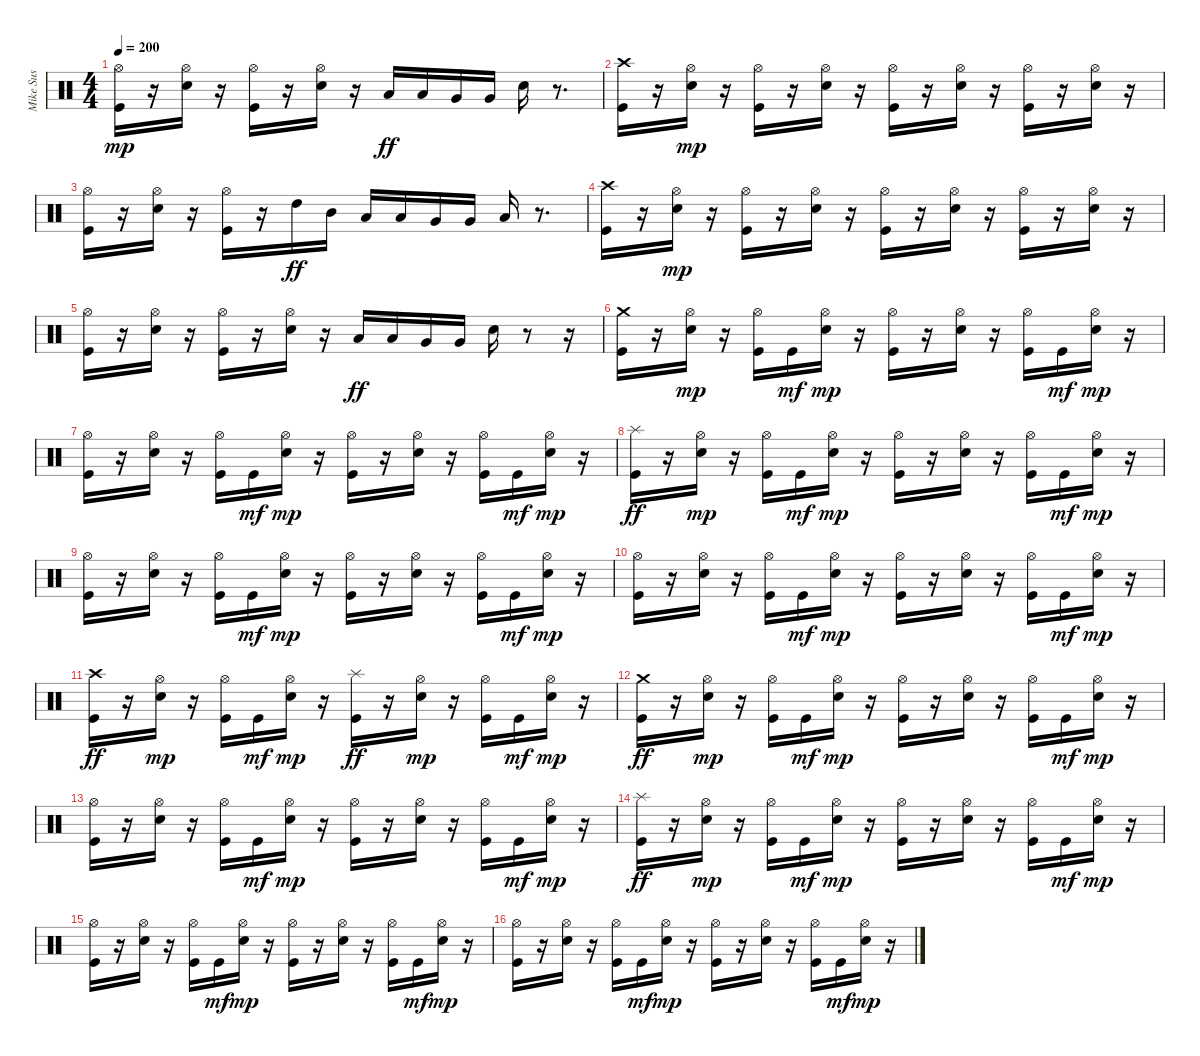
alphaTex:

\track ("Mike Sus" "Mike Sus") {instrument percussion}
\staff {score}
\articulation defaults
\ts (4 4)
\tempo 200
\clef neutral
\ks c
("Kick (hit)" "Hi-Hat (open)").16{dy mp} r.16 ("Snare (hit) 2" "Hi-Hat (open)").16 r.16 ("Kick (hit)" "Hi-Hat (open)").16 r.16 ("Snare (hit) 2" "Hi-Hat (open)").16 r.16 "Low Tom (hit)".16{dy ff} "Low Tom (hit)".16 "Very Low Tom (hit)".16 "Very Low Tom (hit)".16 "Snare (hit) 2".16 r.8{d} |
("Kick (hit)" "Crash high (hit)").16 r.16 ("Snare (hit) 2" "Hi-Hat (open)").16{dy mp} r.16 ("Kick (hit)" "Hi-Hat (open)").16 r.16 ("Snare (hit) 2" "Hi-Hat (open)").16 r.16 ("Kick (hit)" "Hi-Hat (open)").16 r.16 ("Snare (hit) 2" "Hi-Hat (open)").16 r.16 ("Kick (hit)" "Hi-Hat (open)").16 r.16 ("Snare (hit) 2" "Hi-Hat (open)").16 r.16 |
("Kick (hit)" "Hi-Hat (open)").16 r.16 ("Snare (hit) 2" "Hi-Hat (open)").16 r.16 ("Kick (hit)" "Hi-Hat (open)").16 r.16 "High Tom (hit)".16{dy ff} "Mid Tom (hit)".16 "Low Tom (hit)".16 "Low Tom (hit)".16 "Very Low Tom (hit)".16 "Very Low Tom (hit)".16 "Low Floor Tom (hit)".16 r.8{d} |
("Kick (hit)" "Crash high (hit)").16 r.16 ("Snare (hit) 2" "Hi-Hat (open)").16{dy mp} r.16 ("Kick (hit)" "Hi-Hat (open)").16 r.16 ("Snare (hit) 2" "Hi-Hat (open)").16 r.16 ("Kick (hit)" "Hi-Hat (open)").16 r.16 ("Snare (hit) 2" "Hi-Hat (open)").16 r.16 ("Kick (hit)" "Hi-Hat (open)").16 r.16 ("Snare (hit) 2" "Hi-Hat (open)").16 r.16 |
("Kick (hit)" "Hi-Hat (open)").16 r.16 ("Snare (hit) 2" "Hi-Hat (open)").16 r.16 ("Kick (hit)" "Hi-Hat (open)").16 r.16 ("Snare (hit) 2" "Hi-Hat (open)").16 r.16 "Low Tom (hit)".16{dy ff} "Low Tom (hit)".16 "Very Low Tom (hit)".16 "Very Low Tom (hit)".16 "Snare (hit) 2".16 r.8 r.16 |
("Kick (hit)" "Crash medium (hit)").16 r.16 ("Snare (hit) 2" "Hi-Hat (open)").16{dy mp} r.16 ("Kick (hit)" "Hi-Hat (open)").16 "Kick (hit)".16{dy mf} ("Snare (hit) 2" "Hi-Hat (open)").16{dy mp} r.16 ("Kick (hit)" "Hi-Hat (open)").16 r.16 ("Snare (hit) 2" "Hi-Hat (open)").16 r.16 ("Kick (hit)" "Hi-Hat (open)").16 "Kick (hit)".16{dy mf} ("Snare (hit) 2" "Hi-Hat (open)").16{dy mp} r.16 |
("Kick (hit)" "Hi-Hat (open)").16 r.16 ("Snare (hit) 2" "Hi-Hat (open)").16 r.16 ("Kick (hit)" "Hi-Hat (open)").16 "Kick (hit)".16{dy mf} ("Snare (hit) 2" "Hi-Hat (open)").16{dy mp} r.16 ("Kick (hit)" "Hi-Hat (open)").16 r.16 ("Snare (hit) 2" "Hi-Hat (open)").16 r.16 ("Kick (hit)" "Hi-Hat (open)").16 "Kick (hit)".16{dy mf} ("Snare (hit) 2" "Hi-Hat (open)").16{dy mp} r.16 |
("Kick (hit)" "Splash (hit)").16{dy ff} r.16 ("Snare (hit) 2" "Hi-Hat (open)").16{dy mp} r.16 ("Kick (hit)" "Hi-Hat (open)").16 "Kick (hit)".16{dy mf} ("Snare (hit) 2" "Hi-Hat (open)").16{dy mp} r.16 ("Kick (hit)" "Hi-Hat (open)").16 r.16 ("Snare (hit) 2" "Hi-Hat (open)").16 r.16 ("Kick (hit)" "Hi-Hat (open)").16 "Kick (hit)".16{dy mf} ("Snare (hit) 2" "Hi-Hat (open)").16{dy mp} r.16 |
("Kick (hit)" "Hi-Hat (open)").16 r.16 ("Snare (hit) 2" "Hi-Hat (open)").16 r.16 ("Kick (hit)" "Hi-Hat (open)").16 "Kick (hit)".16{dy mf} ("Snare (hit) 2" "Hi-Hat (open)").16{dy mp} r.16 ("Kick (hit)" "Hi-Hat (open)").16 r.16 ("Snare (hit) 2" "Hi-Hat (open)").16 r.16 ("Kick (hit)" "Hi-Hat (open)").16 "Kick (hit)".16{dy mf} ("Snare (hit) 2" "Hi-Hat (open)").16{dy mp} r.16 |
("Kick (hit)" "Hi-Hat (open)").16 r.16 ("Snare (hit) 2" "Hi-Hat (open)").16 r.16 ("Kick (hit)" "Hi-Hat (open)").16 "Kick (hit)".16{dy mf} ("Snare (hit) 2" "Hi-Hat (open)").16{dy mp} r.16 ("Kick (hit)" "Hi-Hat (open)").16 r.16 ("Snare (hit) 2" "Hi-Hat (open)").16 r.16 ("Kick (hit)" "Hi-Hat (open)").16 "Kick (hit)".16{dy mf} ("Snare (hit) 2" "Hi-Hat (open)").16{dy mp} r.16 |
("Kick (hit)" "Crash high (hit)").16{dy ff} r.16 ("Snare (hit) 2" "Hi-Hat (open)").16{dy mp} r.16 ("Kick (hit)" "Hi-Hat (open)").16 "Kick (hit)".16{dy mf} ("Snare (hit) 2" "Hi-Hat (open)").16{dy mp} r.16 ("Kick (hit)" "Splash (hit)").16{dy ff} r.16 ("Snare (hit) 2" "Hi-Hat (open)").16{dy mp} r.16 ("Kick (hit)" "Hi-Hat (open)").16 "Kick (hit)".16{dy mf} ("Snare (hit) 2" "Hi-Hat (open)").16{dy mp} r.16 |
("Kick (hit)" "Crash medium (hit)").16{dy ff} r.16 ("Snare (hit) 2" "Hi-Hat (open)").16{dy mp} r.16 ("Kick (hit)" "Hi-Hat (open)").16 "Kick (hit)".16{dy mf} ("Snare (hit) 2" "Hi-Hat (open)").16{dy mp} r.16 ("Kick (hit)" "Hi-Hat (open)").16 r.16 ("Snare (hit) 2" "Hi-Hat (open)").16 r.16 ("Kick (hit)" "Hi-Hat (open)").16 "Kick (hit)".16{dy mf} ("Snare (hit) 2" "Hi-Hat (open)").16{dy mp} r.16 |
("Kick (hit)" "Hi-Hat (open)").16 r.16 ("Snare (hit) 2" "Hi-Hat (open)").16 r.16 ("Kick (hit)" "Hi-Hat (open)").16 "Kick (hit)".16{dy mf} ("Snare (hit) 2" "Hi-Hat (open)").16{dy mp} r.16 ("Kick (hit)" "Hi-Hat (open)").16 r.16 ("Snare (hit) 2" "Hi-Hat (open)").16 r.16 ("Kick (hit)" "Hi-Hat (open)").16 "Kick (hit)".16{dy mf} ("Snare (hit) 2" "Hi-Hat (open)").16{dy mp} r.16 |
("Kick (hit)" "Splash (hit)").16{dy ff} r.16 ("Snare (hit) 2" "Hi-Hat (open)").16{dy mp} r.16 ("Kick (hit)" "Hi-Hat (open)").16 "Kick (hit)".16{dy mf} ("Snare (hit) 2" "Hi-Hat (open)").16{dy mp} r.16 ("Kick (hit)" "Hi-Hat (open)").16 r.16 ("Snare (hit) 2" "Hi-Hat (open)").16 r.16 ("Kick (hit)" "Hi-Hat (open)").16 "Kick (hit)".16{dy mf} ("Snare (hit) 2" "Hi-Hat (open)").16{dy mp} r.16 |
("Kick (hit)" "Hi-Hat (open)").16 r.16 ("Snare (hit) 2" "Hi-Hat (open)").16 r.16 ("Kick (hit)" "Hi-Hat (open)").16 "Kick (hit)".16{dy mf} ("Snare (hit) 2" "Hi-Hat (open)").16{dy mp} r.16 ("Kick (hit)" "Hi-Hat (open)").16 r.16 ("Snare (hit) 2" "Hi-Hat (open)").16 r.16 ("Kick (hit)" "Hi-Hat (open)").16 "Kick (hit)".16{dy mf} ("Snare (hit) 2" "Hi-Hat (open)").16{dy mp} r.16 |
("Kick (hit)" "Hi-Hat (open)").16 r.16 ("Snare (hit) 2" "Hi-Hat (open)").16 r.16 ("Kick (hit)" "Hi-Hat (open)").16 "Kick (hit)".16{dy mf} ("Snare (hit) 2" "Hi-Hat (open)").16{dy mp} r.16 ("Kick (hit)" "Hi-Hat (open)").16 r.16 ("Snare (hit) 2" "Hi-Hat (open)").16 r.16 ("Kick (hit)" "Hi-Hat (open)").16 "Kick (hit)".16{dy mf} ("Snare (hit) 2" "Hi-Hat (open)").16{dy mp} r.16
